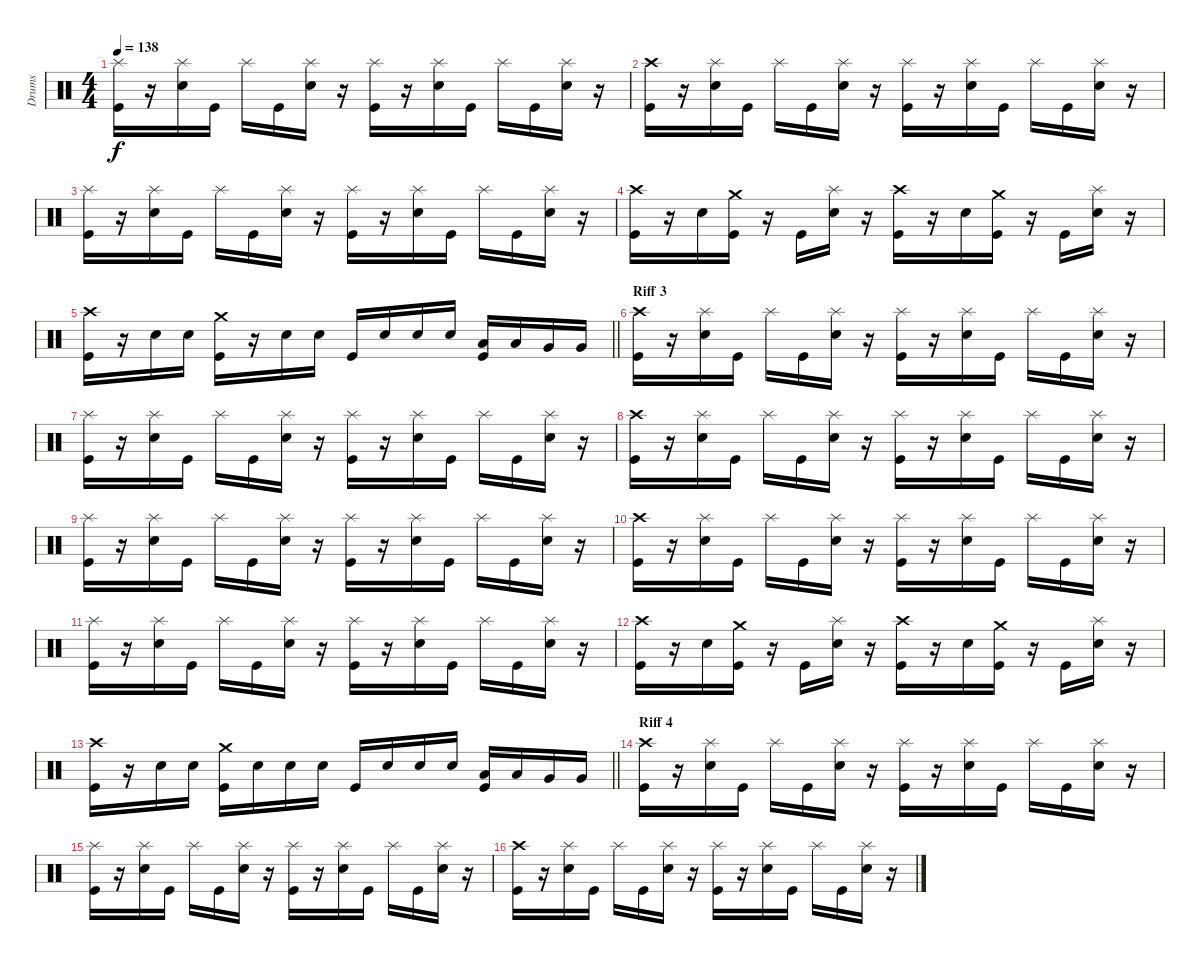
\track ("Drums" "Drums") {instrument percussion}
\staff {score}
\articulation defaults
\ts (4 4)
\tempo 138
\clef neutral
\ks c
("Splash (hit)" "Kick (hit)").16{dy f} r.16 ("Splash (hit)" "Electric Snare (hit)").16 "Kick (hit)".16 "Splash (hit)".16 "Kick (hit)".16 ("Splash (hit)" "Electric Snare (hit)").16 r.16 ("Splash (hit)" "Kick (hit)").16 r.16 ("Splash (hit)" "Electric Snare (hit)").16 "Kick (hit)".16 "Splash (hit)".16 "Kick (hit)".16 ("Splash (hit)" "Electric Snare (hit)").16 r.16 |
("Crash high (hit)" "Kick (hit)").16 r.16 ("Splash (hit)" "Electric Snare (hit)").16 "Kick (hit)".16 "Splash (hit)".16 "Kick (hit)".16 ("Splash (hit)" "Electric Snare (hit)").16 r.16 ("Splash (hit)" "Kick (hit)").16 r.16 ("Splash (hit)" "Electric Snare (hit)").16 "Kick (hit)".16 "Splash (hit)".16 "Kick (hit)".16 ("Splash (hit)" "Electric Snare (hit)").16 r.16 |
("Splash (hit)" "Kick (hit)").16 r.16 ("Splash (hit)" "Electric Snare (hit)").16 "Kick (hit)".16 "Splash (hit)".16 "Kick (hit)".16 ("Splash (hit)" "Electric Snare (hit)").16 r.16 ("Splash (hit)" "Kick (hit)").16 r.16 ("Splash (hit)" "Electric Snare (hit)").16 "Kick (hit)".16 "Splash (hit)".16 "Kick (hit)".16 ("Splash (hit)" "Electric Snare (hit)").16 r.16 |
("Crash high (hit)" "Kick (hit)").16 r.16 "Electric Snare (hit)".16 ("Crash medium (hit)" "Kick (hit)").16 r.16 "Kick (hit)".16 ("Splash (hit)" "Electric Snare (hit)").16 r.16 ("Crash high (hit)" "Kick (hit)").16 r.16 "Electric Snare (hit)".16 ("Crash medium (hit)" "Kick (hit)").16 r.16 "Kick (hit)".16 ("Splash (hit)" "Electric Snare (hit)").16 r.16 |
\barLineRight lightlight
("Crash high (hit)" "Kick (hit)").16 r.16 "Electric Snare (hit)".16 "Electric Snare (hit)".16 ("Crash medium (hit)" "Kick (hit)").16 r.16 "Electric Snare (hit)".16 "Electric Snare (hit)".16 "Kick (hit)".16 "Electric Snare (hit)".16 "Electric Snare (hit)".16 "Electric Snare (hit)".16 ("Low Tom (hit)" "Kick (hit)").16 "Low Tom (hit)".16 "Very Low Tom (hit)".16 "Very Low Tom (hit)".16 |
\section ("" "Riff 3")
("Crash high (hit)" "Kick (hit)").16 r.16 ("Splash (hit)" "Electric Snare (hit)").16 "Kick (hit)".16 "Splash (hit)".16 "Kick (hit)".16 ("Splash (hit)" "Electric Snare (hit)").16 r.16 ("Splash (hit)" "Kick (hit)").16 r.16 ("Splash (hit)" "Electric Snare (hit)").16 "Kick (hit)".16 "Splash (hit)".16 "Kick (hit)".16 ("Splash (hit)" "Electric Snare (hit)").16 r.16 |
("Splash (hit)" "Kick (hit)").16 r.16 ("Splash (hit)" "Electric Snare (hit)").16 "Kick (hit)".16 "Splash (hit)".16 "Kick (hit)".16 ("Splash (hit)" "Electric Snare (hit)").16 r.16 ("Splash (hit)" "Kick (hit)").16 r.16 ("Splash (hit)" "Electric Snare (hit)").16 "Kick (hit)".16 "Splash (hit)".16 "Kick (hit)".16 ("Splash (hit)" "Electric Snare (hit)").16 r.16 |
("Crash high (hit)" "Kick (hit)").16 r.16 ("Splash (hit)" "Electric Snare (hit)").16 "Kick (hit)".16 "Splash (hit)".16 "Kick (hit)".16 ("Splash (hit)" "Electric Snare (hit)").16 r.16 ("Splash (hit)" "Kick (hit)").16 r.16 ("Splash (hit)" "Electric Snare (hit)").16 "Kick (hit)".16 "Splash (hit)".16 "Kick (hit)".16 ("Splash (hit)" "Electric Snare (hit)").16 r.16 |
("Splash (hit)" "Kick (hit)").16 r.16 ("Splash (hit)" "Electric Snare (hit)").16 "Kick (hit)".16 "Splash (hit)".16 "Kick (hit)".16 ("Splash (hit)" "Electric Snare (hit)").16 r.16 ("Splash (hit)" "Kick (hit)").16 r.16 ("Splash (hit)" "Electric Snare (hit)").16 "Kick (hit)".16 "Splash (hit)".16 "Kick (hit)".16 ("Splash (hit)" "Electric Snare (hit)").16 r.16 |
("Crash high (hit)" "Kick (hit)").16 r.16 ("Splash (hit)" "Electric Snare (hit)").16 "Kick (hit)".16 "Splash (hit)".16 "Kick (hit)".16 ("Splash (hit)" "Electric Snare (hit)").16 r.16 ("Splash (hit)" "Kick (hit)").16 r.16 ("Splash (hit)" "Electric Snare (hit)").16 "Kick (hit)".16 "Splash (hit)".16 "Kick (hit)".16 ("Splash (hit)" "Electric Snare (hit)").16 r.16 |
("Splash (hit)" "Kick (hit)").16 r.16 ("Splash (hit)" "Electric Snare (hit)").16 "Kick (hit)".16 "Splash (hit)".16 "Kick (hit)".16 ("Splash (hit)" "Electric Snare (hit)").16 r.16 ("Splash (hit)" "Kick (hit)").16 r.16 ("Splash (hit)" "Electric Snare (hit)").16 "Kick (hit)".16 "Splash (hit)".16 "Kick (hit)".16 ("Splash (hit)" "Electric Snare (hit)").16 r.16 |
("Crash high (hit)" "Kick (hit)").16 r.16 "Electric Snare (hit)".16 ("Crash medium (hit)" "Kick (hit)").16 r.16 "Kick (hit)".16 ("Splash (hit)" "Electric Snare (hit)").16 r.16 ("Crash high (hit)" "Kick (hit)").16 r.16 "Electric Snare (hit)".16 ("Crash medium (hit)" "Kick (hit)").16 r.16 "Kick (hit)".16 ("Splash (hit)" "Electric Snare (hit)").16 r.16 |
\barLineRight lightlight
("Crash high (hit)" "Kick (hit)").16 r.16 "Electric Snare (hit)".16 "Electric Snare (hit)".16 ("Crash medium (hit)" "Kick (hit)").16 "Electric Snare (hit)".16 "Electric Snare (hit)".16 "Electric Snare (hit)".16 "Kick (hit)".16 "Electric Snare (hit)".16 "Electric Snare (hit)".16 "Electric Snare (hit)".16 ("Low Tom (hit)" "Kick (hit)").16 "Low Tom (hit)".16 "Very Low Tom (hit)".16 "Very Low Tom (hit)".16 |
\section ("" "Riff 4")
("Crash high (hit)" "Kick (hit)").16 r.16 ("Splash (hit)" "Electric Snare (hit)").16 "Kick (hit)".16 "Splash (hit)".16 "Kick (hit)".16 ("Splash (hit)" "Electric Snare (hit)").16 r.16 ("Splash (hit)" "Kick (hit)").16 r.16 ("Splash (hit)" "Electric Snare (hit)").16 "Kick (hit)".16 "Splash (hit)".16 "Kick (hit)".16 ("Splash (hit)" "Electric Snare (hit)").16 r.16 |
("Splash (hit)" "Kick (hit)").16 r.16 ("Splash (hit)" "Electric Snare (hit)").16 "Kick (hit)".16 "Splash (hit)".16 "Kick (hit)".16 ("Splash (hit)" "Electric Snare (hit)").16 r.16 ("Splash (hit)" "Kick (hit)").16 r.16 ("Splash (hit)" "Electric Snare (hit)").16 "Kick (hit)".16 "Splash (hit)".16 "Kick (hit)".16 ("Splash (hit)" "Electric Snare (hit)").16 r.16 |
("Crash high (hit)" "Kick (hit)").16 r.16 ("Splash (hit)" "Electric Snare (hit)").16 "Kick (hit)".16 "Splash (hit)".16 "Kick (hit)".16 ("Splash (hit)" "Electric Snare (hit)").16 r.16 ("Splash (hit)" "Kick (hit)").16 r.16 ("Splash (hit)" "Electric Snare (hit)").16 "Kick (hit)".16 "Splash (hit)".16 "Kick (hit)".16 ("Splash (hit)" "Electric Snare (hit)").16 r.16
